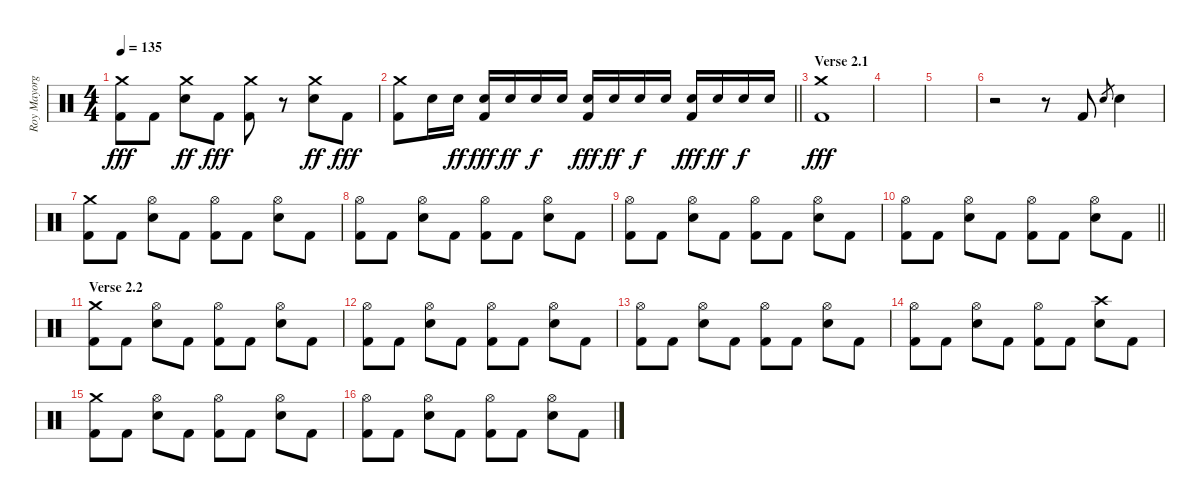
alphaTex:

\track ("Roy Mayorga" "Roy Mayorg") {instrument percussion}
\staff {score}
\articulation defaults
\ts (4 4)
\tempo 135
\clef neutral
\ks c
("Crash medium (hit)" "Kick (hit) 2").8{dy fff} "Kick (hit) 2".8 ("Crash medium (hit)" "Electric Snare (hit)").8{dy ff} "Kick (hit) 2".8{dy fff} ("Crash medium (hit)" "Kick (hit) 2").8 r.8 ("Crash medium (hit)" "Electric Snare (hit)").8{dy ff} "Kick (hit) 2".8{dy fff} |
\barLineRight lightlight
("Crash medium (hit)" "Kick (hit) 2").8 "Electric Snare (hit)".16 "Electric Snare (hit)".16{dy ff} ("Electric Snare (hit)" "Kick (hit) 2").16{dy fff} "Electric Snare (hit)".16{dy ff} "Electric Snare (hit)".16{dy f} "Electric Snare (hit)".16 ("Electric Snare (hit)" "Kick (hit) 2").16{dy fff} "Electric Snare (hit)".16{dy ff} "Electric Snare (hit)".16{dy f} "Electric Snare (hit)".16 ("Electric Snare (hit)" "Kick (hit) 2").16{dy fff} "Electric Snare (hit)".16{dy ff} "Electric Snare (hit)".16{dy f} "Electric Snare (hit)".16 |
\section ("" "Verse 2.1")
("Crash medium (hit)" "Kick (hit) 2").1{dy fff} |
|
|
r.2 r.8 "Kick (hit) 2".8 "Electric Snare (hit)".8{gr} "Electric Snare (hit)".4 |
("Crash medium (hit)" "Kick (hit) 2").8 "Kick (hit) 2".8 ("Hi-Hat (open)" "Electric Snare (hit)").8 "Kick (hit) 2".8 ("Hi-Hat (open)" "Kick (hit) 2").8 "Kick (hit) 2".8 ("Hi-Hat (open)" "Electric Snare (hit)").8 "Kick (hit) 2".8 |
("Hi-Hat (open)" "Kick (hit) 2").8 "Kick (hit) 2".8 ("Hi-Hat (open)" "Electric Snare (hit)").8 "Kick (hit) 2".8 ("Hi-Hat (open)" "Kick (hit) 2").8 "Kick (hit) 2".8 ("Hi-Hat (open)" "Electric Snare (hit)").8 "Kick (hit) 2".8 |
("Hi-Hat (open)" "Kick (hit) 2").8 "Kick (hit) 2".8 ("Hi-Hat (open)" "Electric Snare (hit)").8 "Kick (hit) 2".8 ("Hi-Hat (open)" "Kick (hit) 2").8 "Kick (hit) 2".8 ("Hi-Hat (open)" "Electric Snare (hit)").8 "Kick (hit) 2".8 |
\barLineRight lightlight
("Hi-Hat (open)" "Kick (hit) 2").8 "Kick (hit) 2".8 ("Hi-Hat (open)" "Electric Snare (hit)").8 "Kick (hit) 2".8 ("Hi-Hat (open)" "Kick (hit) 2").8 "Kick (hit) 2".8 ("Hi-Hat (open)" "Electric Snare (hit)").8 "Kick (hit) 2".8 |
\section ("" "Verse 2.2")
("Crash medium (hit)" "Kick (hit) 2").8 "Kick (hit) 2".8 ("Hi-Hat (open)" "Electric Snare (hit)").8 "Kick (hit) 2".8 ("Hi-Hat (open)" "Kick (hit) 2").8 "Kick (hit) 2".8 ("Hi-Hat (open)" "Electric Snare (hit)").8 "Kick (hit) 2".8 |
("Hi-Hat (open)" "Kick (hit) 2").8 "Kick (hit) 2".8 ("Hi-Hat (open)" "Electric Snare (hit)").8 "Kick (hit) 2".8 ("Hi-Hat (open)" "Kick (hit) 2").8 "Kick (hit) 2".8 ("Hi-Hat (open)" "Electric Snare (hit)").8 "Kick (hit) 2".8 |
("Hi-Hat (open)" "Kick (hit) 2").8 "Kick (hit) 2".8 ("Hi-Hat (open)" "Electric Snare (hit)").8 "Kick (hit) 2".8 ("Hi-Hat (open)" "Kick (hit) 2").8 "Kick (hit) 2".8 ("Hi-Hat (open)" "Electric Snare (hit)").8 "Kick (hit) 2".8 |
("Hi-Hat (open)" "Kick (hit) 2").8 "Kick (hit) 2".8 ("Hi-Hat (open)" "Electric Snare (hit)").8 "Kick (hit) 2".8 ("Hi-Hat (open)" "Kick (hit) 2").8 "Kick (hit) 2".8 ("Crash high (hit)" "Electric Snare (hit)").8 "Kick (hit) 2".8 |
("Crash medium (hit)" "Kick (hit) 2").8 "Kick (hit) 2".8 ("Hi-Hat (open)" "Electric Snare (hit)").8 "Kick (hit) 2".8 ("Hi-Hat (open)" "Kick (hit) 2").8 "Kick (hit) 2".8 ("Hi-Hat (open)" "Electric Snare (hit)").8 "Kick (hit) 2".8 |
("Hi-Hat (open)" "Kick (hit) 2").8 "Kick (hit) 2".8 ("Hi-Hat (open)" "Electric Snare (hit)").8 "Kick (hit) 2".8 ("Hi-Hat (open)" "Kick (hit) 2").8 "Kick (hit) 2".8 ("Hi-Hat (open)" "Electric Snare (hit)").8 "Kick (hit) 2".8
